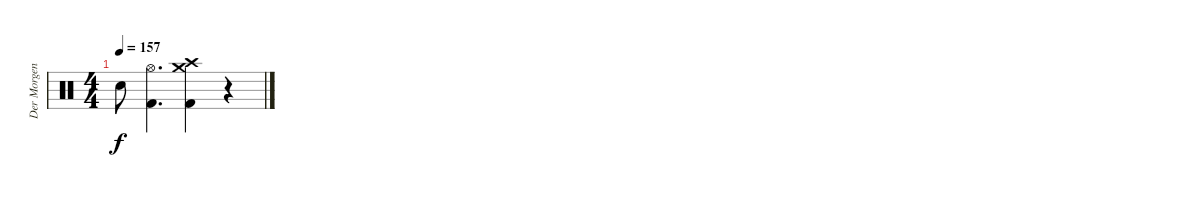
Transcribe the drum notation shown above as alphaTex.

\track ("Der Morgenstern" "Der Morgen") {instrument percussion}
\staff {score}
\articulation defaults
\ts (4 4)
\tempo 157
\clef neutral
\ks c "Electric Snare (hit)".8{dy f}
("Hi-Hat (open)" "Kick (hit) 2").4{d} ("Crash high (hit)" "Crash medium (hit)" "Kick (hit) 2").4 r.4
